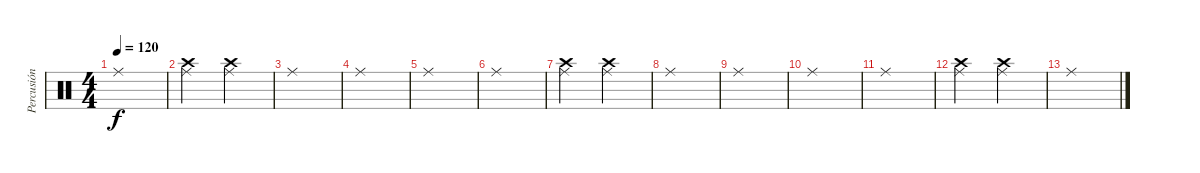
\track ("Percusión" "Percusión") {instrument percussion}
\staff {score}
\articulation defaults
\ts (4 4)
\tempo 120
\clef neutral
\ks c "Ride (middle)".1{dy f}
|
("Crash high (hit)" "Ride (middle)").2 ("Crash high (hit)" "Ride (middle)").2 |
"Ride (middle)".1 |
"Ride (middle)".1 |
"Ride (middle)".1 |
"Ride (middle)".1 |
("Crash high (hit)" "Ride (middle)").2 ("Crash high (hit)" "Ride (middle)").2 |
"Ride (middle)".1 |
"Ride (middle)".1 |
"Ride (middle)".1 |
"Ride (middle)".1 |
("Crash high (hit)" "Ride (middle)").2 ("Crash high (hit)" "Ride (middle)").2 |
"Ride (middle)".1
